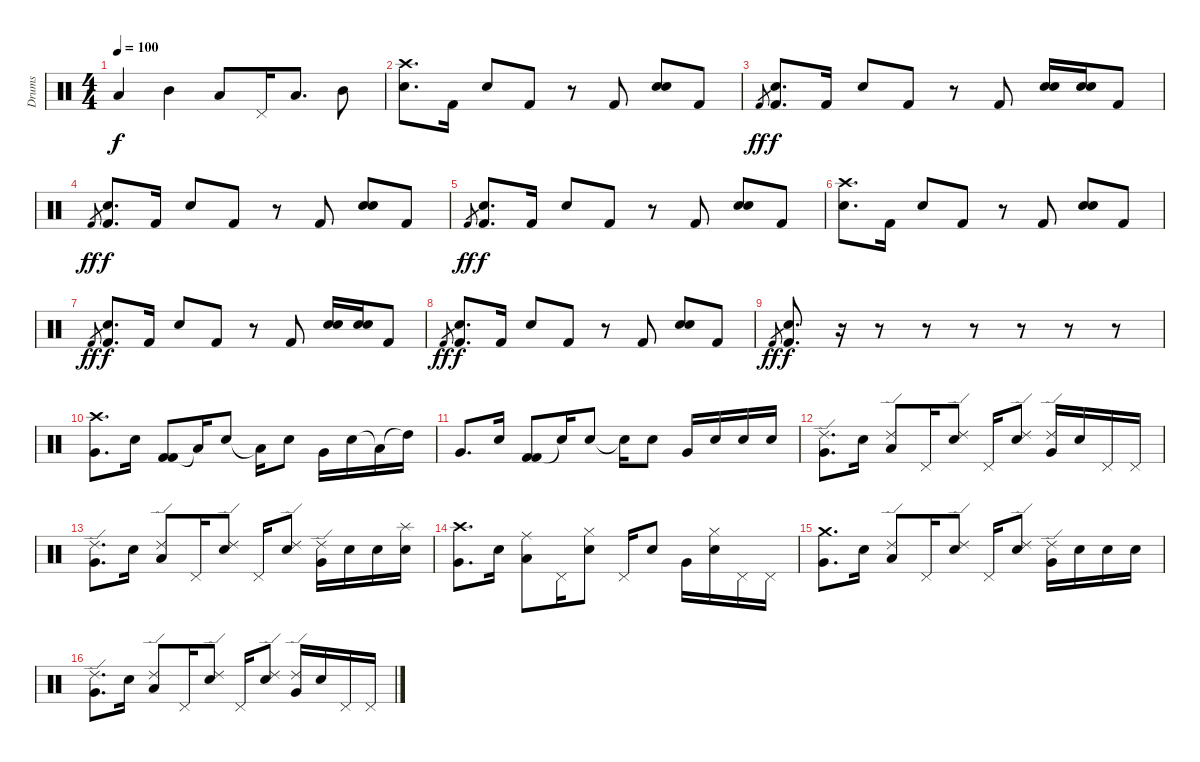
\track ("Drums" "Drums") {instrument percussion}
\staff {score}
\articulation defaults
\ts (4 4)
\tempo 100
\clef neutral
\ks c "Low Tom (hit)".4{dy f} "Mid Tom (hit)".4 "Low Tom (hit)".8 "Pedal Hi-Hat (hit)".16 "Low Tom (hit)".8{d} "Mid Tom (hit)".8
|
("Snare (hit) 2" "Crash high (hit)").8{d} "Kick (hit) 2".16 "Snare (hit) 2".8 "Kick (hit) 2".8 r.8 "Kick (hit) 2".8 ("Snare (hit) 2" "Electric Snare (hit)").8 "Kick (hit) 2".8 |
"Kick (hit) 2".8{gr dy ff} ("Snare (hit) 2" "Kick (hit) 2").8{d dy f} "Kick (hit) 2".16 "Snare (hit) 2".8 "Kick (hit) 2".8 r.8 "Kick (hit) 2".8 ("Snare (hit) 2" "Electric Snare (hit)").16 ("Snare (hit) 2" "Electric Snare (hit)").16 "Kick (hit) 2".8 |
"Kick (hit) 2".8{gr dy ff} ("Snare (hit) 2" "Kick (hit) 2").8{d dy f} "Kick (hit) 2".16 "Snare (hit) 2".8 "Kick (hit) 2".8 r.8 "Kick (hit) 2".8 ("Snare (hit) 2" "Electric Snare (hit)").8 "Kick (hit) 2".8 |
"Kick (hit) 2".8{gr dy ff} ("Snare (hit) 2" "Kick (hit) 2").8{d dy f} "Kick (hit) 2".16 "Snare (hit) 2".8 "Kick (hit) 2".8 r.8 "Kick (hit) 2".8 ("Snare (hit) 2" "Electric Snare (hit)").8 "Kick (hit) 2".8 |
("Snare (hit) 2" "Crash high (hit)").8{d} "Kick (hit) 2".16 "Snare (hit) 2".8 "Kick (hit) 2".8 r.8 "Kick (hit) 2".8 ("Snare (hit) 2" "Electric Snare (hit)").8 "Kick (hit) 2".8 |
"Kick (hit) 2".8{gr dy ff} ("Snare (hit) 2" "Kick (hit) 2").8{d dy f} "Kick (hit) 2".16 "Snare (hit) 2".8 "Kick (hit) 2".8 r.8 "Kick (hit) 2".8 ("Snare (hit) 2" "Electric Snare (hit)").16 ("Snare (hit) 2" "Electric Snare (hit)").16 "Kick (hit) 2".8 |
"Kick (hit) 2".8{gr dy ff} ("Snare (hit) 2" "Kick (hit) 2").8{d dy f} "Kick (hit) 2".16 "Snare (hit) 2".8 "Kick (hit) 2".8 r.8 "Kick (hit) 2".8 ("Snare (hit) 2" "Electric Snare (hit)").8 "Kick (hit) 2".8 |
"Kick (hit) 2".8{gr dy ff} ("Snare (hit) 2" "Kick (hit) 2").8{d dy f} r.16 r.8 r.8 r.8 r.8 r.8 r.8 |
("Crash high (hit)" "Very Low Tom (hit)").8{d} "Electric Snare (hit)".16 ("Kick (hit) 2" "Kick (hit) 2").8 "Low Tom (hit)"{t}.16 "Electric Snare (hit)".8 "Low Tom (hit)"{t}.16 "Electric Snare (hit)".8 "Very Low Tom (hit)".16 "Electric Snare (hit)".16 "Low Tom (hit)"{t}.16 "High Tom (hit)"{t}.16 |
"Very Low Tom (hit)".8{d} "Electric Snare (hit)".16 ("Kick (hit) 2" "Kick (hit) 2").8 "Snare (hit)"{t}.16 "Electric Snare (hit)".8 "Snare (hit)"{t}.16 "Electric Snare (hit)".8 "Very Low Tom (hit)".16 "Electric Snare (hit)".16 "Electric Snare (hit)".16 "Electric Snare (hit)".16 |
("Ride (edge) 2" "Very Low Tom (hit)").8{d} "Electric Snare (hit)".16 ("Ride (edge) 2" "Low Tom (hit)").8 "Pedal Hi-Hat (hit)".16 ("Ride (edge) 2" "Electric Snare (hit)").8 "Pedal Hi-Hat (hit)".16 ("Ride (edge) 2" "Electric Snare (hit)").8 ("Ride (edge) 2" "Very Low Tom (hit)").16 "Electric Snare (hit)".16 "Pedal Hi-Hat (hit)".16 "Pedal Hi-Hat (hit)".16 |
("Ride (edge) 2" "Very Low Tom (hit)").8{d} "Electric Snare (hit)".16 ("Ride (edge) 2" "Low Tom (hit)").8 "Pedal Hi-Hat (hit)".16 ("Ride (edge) 2" "Electric Snare (hit)").8 "Pedal Hi-Hat (hit)".16 ("Ride (edge) 2" "Electric Snare (hit)").8 ("Ride (edge) 2" "Very Low Tom (hit)").16 "Electric Snare (hit)".16 "Electric Snare (hit)".16 ("Splash (hit)" "Electric Snare (hit)").16 |
("Crash high (hit)" "Very Low Tom (hit)").8{d} "Electric Snare (hit)".16 ("Ride (middle)" "Low Tom (hit)").8 "Pedal Hi-Hat (hit)".16 ("Hi-Hat (closed)" "Electric Snare (hit)").8 "Pedal Hi-Hat (hit)".16 "Electric Snare (hit)".8 "Very Low Tom (hit)".16 ("Hi-Hat (closed)" "Electric Snare (hit)").16 "Pedal Hi-Hat (hit)".16 "Pedal Hi-Hat (hit)".16 |
("Crash medium (hit)" "Very Low Tom (hit)").8{d} "Electric Snare (hit)".16 ("Ride (edge) 2" "Low Tom (hit)").8 "Pedal Hi-Hat (hit)".16 ("Ride (edge) 2" "Electric Snare (hit)").8 "Pedal Hi-Hat (hit)".16 ("Ride (edge) 2" "Electric Snare (hit)").8 ("Ride (edge) 2" "Very Low Tom (hit)").16 "Electric Snare (hit)".16 "Electric Snare (hit)".16 "Electric Snare (hit)".16 |
("Ride (edge) 2" "Very Low Tom (hit)").8{d} "Electric Snare (hit)".16 ("Ride (edge) 2" "Low Tom (hit)").8 "Pedal Hi-Hat (hit)".16 ("Ride (edge) 2" "Electric Snare (hit)").8 "Pedal Hi-Hat (hit)".16 ("Ride (edge) 2" "Electric Snare (hit)").8 ("Ride (edge) 2" "Very Low Tom (hit)").16 "Electric Snare (hit)".16 "Pedal Hi-Hat (hit)".16 "Pedal Hi-Hat (hit)".16
